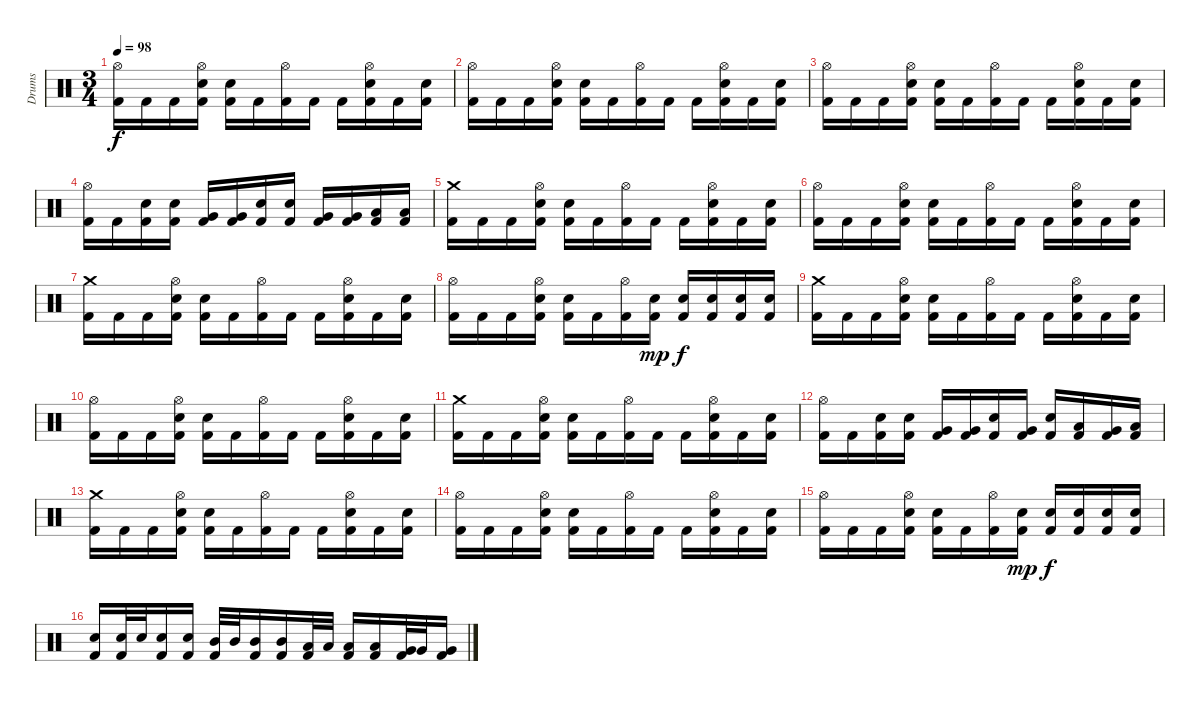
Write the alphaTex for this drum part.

\track ("Drums" "Drums") {instrument percussion}
\staff {score}
\articulation defaults
\ts (3 4)
\tempo 98
\clef neutral
\ks c
("Hi-Hat (open)" "Kick (hit) 2").16{dy f} "Kick (hit) 2".16 "Kick (hit) 2".16 ("Hi-Hat (open)" "Electric Snare (hit)" "Kick (hit) 2").16 ("Electric Snare (hit)" "Kick (hit) 2").16 "Kick (hit) 2".16 ("Hi-Hat (open)" "Kick (hit) 2").16 "Kick (hit) 2".16 "Kick (hit) 2".16 ("Hi-Hat (open)" "Electric Snare (hit)" "Kick (hit) 2").16 "Kick (hit) 2".16 ("Electric Snare (hit)" "Kick (hit) 2").16 |
("Hi-Hat (open)" "Kick (hit) 2").16 "Kick (hit) 2".16 "Kick (hit) 2".16 ("Hi-Hat (open)" "Electric Snare (hit)" "Kick (hit) 2").16 ("Electric Snare (hit)" "Kick (hit) 2").16 "Kick (hit) 2".16 ("Hi-Hat (open)" "Kick (hit) 2").16 "Kick (hit) 2".16 "Kick (hit) 2".16 ("Hi-Hat (open)" "Electric Snare (hit)" "Kick (hit) 2").16 "Kick (hit) 2".16 ("Electric Snare (hit)" "Kick (hit) 2").16 |
("Hi-Hat (open)" "Kick (hit) 2").16 "Kick (hit) 2".16 "Kick (hit) 2".16 ("Hi-Hat (open)" "Electric Snare (hit)" "Kick (hit) 2").16 ("Electric Snare (hit)" "Kick (hit) 2").16 "Kick (hit) 2".16 ("Hi-Hat (open)" "Kick (hit) 2").16 "Kick (hit) 2".16 "Kick (hit) 2".16 ("Hi-Hat (open)" "Electric Snare (hit)" "Kick (hit) 2").16 "Kick (hit) 2".16 ("Electric Snare (hit)" "Kick (hit) 2").16 |
("Hi-Hat (open)" "Kick (hit) 2").16 "Kick (hit) 2".16 ("Electric Snare (hit)" "Kick (hit) 2").16 ("Electric Snare (hit)" "Kick (hit) 2").16 ("Very Low Tom (hit)" "Kick (hit) 2").16 ("Very Low Tom (hit)" "Kick (hit) 2").16 ("Electric Snare (hit)" "Kick (hit) 2").16 ("Electric Snare (hit)" "Kick (hit) 2").16 ("Very Low Tom (hit)" "Kick (hit) 2").16 ("Very Low Tom (hit)" "Kick (hit) 2").16 ("Low Floor Tom (hit)" "Kick (hit) 2").16 ("Low Floor Tom (hit)" "Kick (hit) 2").16 |
("Crash medium (hit)" "Kick (hit) 2").16 "Kick (hit) 2".16 "Kick (hit) 2".16 ("Hi-Hat (open)" "Electric Snare (hit)" "Kick (hit) 2").16 ("Electric Snare (hit)" "Kick (hit) 2").16 "Kick (hit) 2".16 ("Hi-Hat (open)" "Kick (hit) 2").16 "Kick (hit) 2".16 "Kick (hit) 2".16 ("Hi-Hat (open)" "Electric Snare (hit)" "Kick (hit) 2").16 "Kick (hit) 2".16 ("Electric Snare (hit)" "Kick (hit) 2").16 |
("Hi-Hat (open)" "Kick (hit) 2").16 "Kick (hit) 2".16 "Kick (hit) 2".16 ("Hi-Hat (open)" "Electric Snare (hit)" "Kick (hit) 2").16 ("Electric Snare (hit)" "Kick (hit) 2").16 "Kick (hit) 2".16 ("Hi-Hat (open)" "Kick (hit) 2").16 "Kick (hit) 2".16 "Kick (hit) 2".16 ("Hi-Hat (open)" "Electric Snare (hit)" "Kick (hit) 2").16 "Kick (hit) 2".16 ("Electric Snare (hit)" "Kick (hit) 2").16 |
("Crash medium (hit)" "Kick (hit) 2").16 "Kick (hit) 2".16 "Kick (hit) 2".16 ("Hi-Hat (open)" "Electric Snare (hit)" "Kick (hit) 2").16 ("Electric Snare (hit)" "Kick (hit) 2").16 "Kick (hit) 2".16 ("Hi-Hat (open)" "Kick (hit) 2").16 "Kick (hit) 2".16 "Kick (hit) 2".16 ("Hi-Hat (open)" "Electric Snare (hit)" "Kick (hit) 2").16 "Kick (hit) 2".16 ("Electric Snare (hit)" "Kick (hit) 2").16 |
("Hi-Hat (open)" "Kick (hit) 2").16 "Kick (hit) 2".16 "Kick (hit) 2".16 ("Hi-Hat (open)" "Electric Snare (hit)" "Kick (hit) 2").16 ("Electric Snare (hit)" "Kick (hit) 2").16 "Kick (hit) 2".16 ("Hi-Hat (open)" "Kick (hit) 2").16 ("Electric Snare (hit)" "Kick (hit) 2").16{dy mp} ("Electric Snare (hit)" "Kick (hit) 2").16{dy f} ("Electric Snare (hit)" "Kick (hit) 2").16 ("Electric Snare (hit)" "Kick (hit) 2").16 ("Electric Snare (hit)" "Kick (hit) 2").16 |
("Crash medium (hit)" "Kick (hit) 2").16 "Kick (hit) 2".16 "Kick (hit) 2".16 ("Hi-Hat (open)" "Electric Snare (hit)" "Kick (hit) 2").16 ("Electric Snare (hit)" "Kick (hit) 2").16 "Kick (hit) 2".16 ("Hi-Hat (open)" "Kick (hit) 2").16 "Kick (hit) 2".16 "Kick (hit) 2".16 ("Hi-Hat (open)" "Electric Snare (hit)" "Kick (hit) 2").16 "Kick (hit) 2".16 ("Electric Snare (hit)" "Kick (hit) 2").16 |
("Hi-Hat (open)" "Kick (hit) 2").16 "Kick (hit) 2".16 "Kick (hit) 2".16 ("Hi-Hat (open)" "Electric Snare (hit)" "Kick (hit) 2").16 ("Electric Snare (hit)" "Kick (hit) 2").16 "Kick (hit) 2".16 ("Hi-Hat (open)" "Kick (hit) 2").16 "Kick (hit) 2".16 "Kick (hit) 2".16 ("Hi-Hat (open)" "Electric Snare (hit)" "Kick (hit) 2").16 "Kick (hit) 2".16 ("Electric Snare (hit)" "Kick (hit) 2").16 |
("Crash medium (hit)" "Kick (hit) 2").16 "Kick (hit) 2".16 "Kick (hit) 2".16 ("Hi-Hat (open)" "Electric Snare (hit)" "Kick (hit) 2").16 ("Electric Snare (hit)" "Kick (hit) 2").16 "Kick (hit) 2".16 ("Hi-Hat (open)" "Kick (hit) 2").16 "Kick (hit) 2".16 "Kick (hit) 2".16 ("Hi-Hat (open)" "Electric Snare (hit)" "Kick (hit) 2").16 "Kick (hit) 2".16 ("Electric Snare (hit)" "Kick (hit) 2").16 |
("Hi-Hat (open)" "Kick (hit) 2").16 "Kick (hit) 2".16 ("Electric Snare (hit)" "Kick (hit) 2").16 ("Electric Snare (hit)" "Kick (hit) 2").16 ("Very Low Tom (hit)" "Kick (hit) 2").16 ("Very Low Tom (hit)" "Kick (hit) 2").16 ("Electric Snare (hit)" "Kick (hit) 2").16 ("Very Low Tom (hit)" "Kick (hit) 2").16 ("Electric Snare (hit)" "Kick (hit) 2").16 ("Low Tom (hit)" "Kick (hit) 2").16 ("Very Low Tom (hit)" "Kick (hit) 2").16 ("Low Floor Tom (hit)" "Kick (hit) 2").16 |
("Crash medium (hit)" "Kick (hit) 2").16 "Kick (hit) 2".16 "Kick (hit) 2".16 ("Hi-Hat (open)" "Electric Snare (hit)" "Kick (hit) 2").16 ("Electric Snare (hit)" "Kick (hit) 2").16 "Kick (hit) 2".16 ("Hi-Hat (open)" "Kick (hit) 2").16 "Kick (hit) 2".16 "Kick (hit) 2".16 ("Hi-Hat (open)" "Electric Snare (hit)" "Kick (hit) 2").16 "Kick (hit) 2".16 ("Electric Snare (hit)" "Kick (hit) 2").16 |
("Hi-Hat (open)" "Kick (hit) 2").16 "Kick (hit) 2".16 "Kick (hit) 2".16 ("Hi-Hat (open)" "Electric Snare (hit)" "Kick (hit) 2").16 ("Electric Snare (hit)" "Kick (hit) 2").16 "Kick (hit) 2".16 ("Hi-Hat (open)" "Kick (hit) 2").16 "Kick (hit) 2".16 "Kick (hit) 2".16 ("Hi-Hat (open)" "Electric Snare (hit)" "Kick (hit) 2").16 "Kick (hit) 2".16 ("Electric Snare (hit)" "Kick (hit) 2").16 |
("Hi-Hat (open)" "Kick (hit) 2").16 "Kick (hit) 2".16 "Kick (hit) 2".16 ("Hi-Hat (open)" "Electric Snare (hit)" "Kick (hit) 2").16 ("Electric Snare (hit)" "Kick (hit) 2").16 "Kick (hit) 2".16 ("Hi-Hat (open)" "Kick (hit) 2").16 ("Electric Snare (hit)" "Kick (hit) 2").16{dy mp} ("Electric Snare (hit)" "Kick (hit) 2").16{dy f} ("Electric Snare (hit)" "Kick (hit) 2").16 ("Electric Snare (hit)" "Kick (hit) 2").16 ("Electric Snare (hit)" "Kick (hit) 2").16 |
("Electric Snare (hit)" "Kick (hit) 2").16 ("Electric Snare (hit)" "Kick (hit) 2").32 "Electric Snare (hit)".32 ("Electric Snare (hit)" "Kick (hit) 2").16 ("Electric Snare (hit)" "Kick (hit) 2").16 ("Mid Tom (hit)" "Kick (hit) 2").32 "Mid Tom (hit)".32 ("Mid Tom (hit)" "Kick (hit) 2").16 ("Mid Tom (hit)" "Kick (hit) 2").16 ("Low Tom (hit)" "Kick (hit) 2").32 "Low Tom (hit)".32 ("Low Tom (hit)" "Kick (hit) 2").16 ("Low Tom (hit)" "Kick (hit) 2").16 ("Very Low Tom (hit)" "Kick (hit) 2").32 "Very Low Tom (hit)".32 ("Very Low Tom (hit)" "Kick (hit) 2").16
